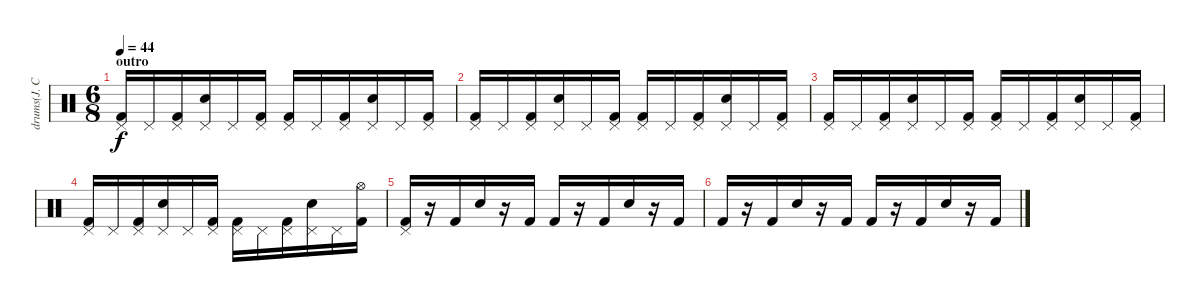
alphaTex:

\track ("drums(J. Cramer)" "drums(J. C") {instrument percussion}
\staff {score}
\articulation defaults
\ts (6 8)
\section ("" "outro")
\tempo 44
\clef neutral
\ks c
("Pedal Hi-Hat (hit)" "Kick (hit) 2").16{dy f} "Pedal Hi-Hat (hit)".16 ("Pedal Hi-Hat (hit)" "Kick (hit) 2").16 ("Pedal Hi-Hat (hit)" "Electric Snare (hit)").16 "Pedal Hi-Hat (hit)".16 ("Pedal Hi-Hat (hit)" "Kick (hit) 2").16 ("Pedal Hi-Hat (hit)" "Kick (hit) 2").16 "Pedal Hi-Hat (hit)".16 ("Pedal Hi-Hat (hit)" "Kick (hit) 2").16 ("Pedal Hi-Hat (hit)" "Electric Snare (hit)").16 "Pedal Hi-Hat (hit)".16 ("Pedal Hi-Hat (hit)" "Kick (hit) 2").16 |
("Pedal Hi-Hat (hit)" "Kick (hit) 2").16 "Pedal Hi-Hat (hit)".16 ("Pedal Hi-Hat (hit)" "Kick (hit) 2").16 ("Pedal Hi-Hat (hit)" "Electric Snare (hit)").16 "Pedal Hi-Hat (hit)".16 ("Pedal Hi-Hat (hit)" "Kick (hit) 2").16 ("Pedal Hi-Hat (hit)" "Kick (hit) 2").16 "Pedal Hi-Hat (hit)".16 ("Pedal Hi-Hat (hit)" "Kick (hit) 2").16 ("Pedal Hi-Hat (hit)" "Electric Snare (hit)").16 "Pedal Hi-Hat (hit)".16 ("Pedal Hi-Hat (hit)" "Kick (hit) 2").16 |
("Pedal Hi-Hat (hit)" "Kick (hit) 2").16 "Pedal Hi-Hat (hit)".16 ("Pedal Hi-Hat (hit)" "Kick (hit) 2").16 ("Pedal Hi-Hat (hit)" "Electric Snare (hit)").16 "Pedal Hi-Hat (hit)".16 ("Pedal Hi-Hat (hit)" "Kick (hit) 2").16 ("Pedal Hi-Hat (hit)" "Kick (hit) 2").16 "Pedal Hi-Hat (hit)".16 ("Pedal Hi-Hat (hit)" "Kick (hit) 2").16 ("Pedal Hi-Hat (hit)" "Electric Snare (hit)").16 "Pedal Hi-Hat (hit)".16 ("Pedal Hi-Hat (hit)" "Kick (hit) 2").16 |
("Pedal Hi-Hat (hit)" "Kick (hit) 2").16 "Pedal Hi-Hat (hit)".16 ("Pedal Hi-Hat (hit)" "Kick (hit) 2").16 ("Pedal Hi-Hat (hit)" "Electric Snare (hit)").16 "Pedal Hi-Hat (hit)".16 ("Pedal Hi-Hat (hit)" "Kick (hit) 2").16 ("Pedal Hi-Hat (hit)" "Kick (hit) 2").16 "Pedal Hi-Hat (hit)".16 ("Pedal Hi-Hat (hit)" "Kick (hit) 2").16 ("Pedal Hi-Hat (hit)" "Electric Snare (hit)").16 "Pedal Hi-Hat (hit)".16 ("Hi-Hat (open)" "Kick (hit) 2").16 |
("Pedal Hi-Hat (hit)" "Kick (hit) 2").16 r.16 "Kick (hit) 2".16 "Electric Snare (hit)".16 r.16 "Kick (hit) 2".16 "Kick (hit) 2".16 r.16 "Kick (hit) 2".16 "Electric Snare (hit)".16 r.16 "Kick (hit) 2".16 |
"Kick (hit) 2".16 r.16 "Kick (hit) 2".16 "Electric Snare (hit)".16 r.16 "Kick (hit) 2".16 "Kick (hit) 2".16 r.16 "Kick (hit) 2".16 "Electric Snare (hit)".16 r.16 "Kick (hit) 2".16
